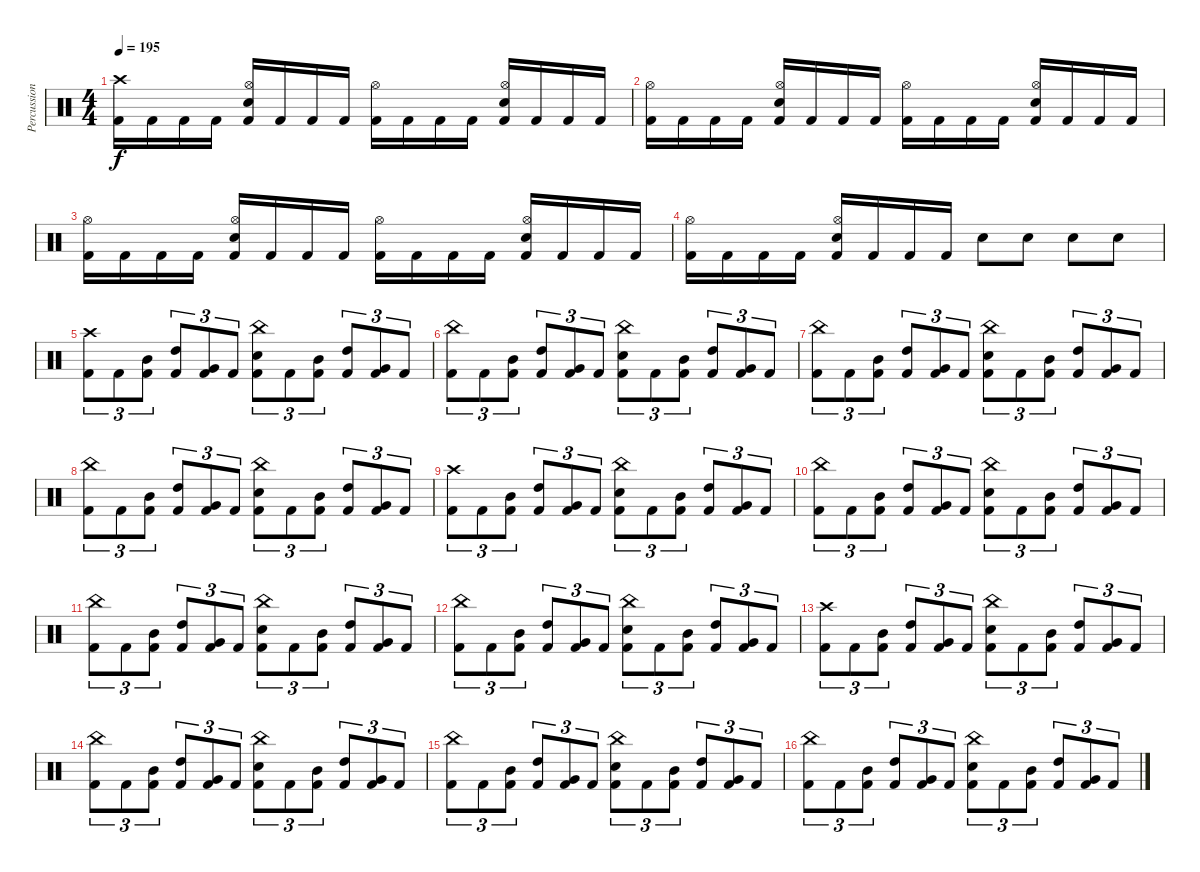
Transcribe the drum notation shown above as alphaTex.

\track ("Percussion" "Percussion") {instrument percussion}
\staff {score}
\articulation defaults
\ts (4 4)
\tempo 195
\clef neutral
\ks c
("Kick (hit) 2" "Crash high (hit)").16{dy f} "Kick (hit) 2".16 "Kick (hit) 2".16 "Kick (hit) 2".16 ("Kick (hit) 2" "Hi-Hat (open)" "Snare (hit) 2").16 "Kick (hit) 2".16 "Kick (hit) 2".16 "Kick (hit) 2".16 ("Kick (hit) 2" "Hi-Hat (open)").16 "Kick (hit) 2".16 "Kick (hit) 2".16 "Kick (hit) 2".16 ("Kick (hit) 2" "Hi-Hat (open)" "Snare (hit) 2").16 "Kick (hit) 2".16 "Kick (hit) 2".16 "Kick (hit) 2".16 |
("Kick (hit) 2" "Hi-Hat (open)").16 "Kick (hit) 2".16 "Kick (hit) 2".16 "Kick (hit) 2".16 ("Kick (hit) 2" "Hi-Hat (open)" "Snare (hit) 2").16 "Kick (hit) 2".16 "Kick (hit) 2".16 "Kick (hit) 2".16 ("Kick (hit) 2" "Hi-Hat (open)").16 "Kick (hit) 2".16 "Kick (hit) 2".16 "Kick (hit) 2".16 ("Kick (hit) 2" "Hi-Hat (open)" "Snare (hit) 2").16 "Kick (hit) 2".16 "Kick (hit) 2".16 "Kick (hit) 2".16 |
("Kick (hit) 2" "Hi-Hat (open)").16 "Kick (hit) 2".16 "Kick (hit) 2".16 "Kick (hit) 2".16 ("Kick (hit) 2" "Hi-Hat (open)" "Snare (hit) 2").16 "Kick (hit) 2".16 "Kick (hit) 2".16 "Kick (hit) 2".16 ("Kick (hit) 2" "Hi-Hat (open)").16 "Kick (hit) 2".16 "Kick (hit) 2".16 "Kick (hit) 2".16 ("Kick (hit) 2" "Hi-Hat (open)" "Snare (hit) 2").16 "Kick (hit) 2".16 "Kick (hit) 2".16 "Kick (hit) 2".16 |
("Kick (hit) 2" "Hi-Hat (open)").16 "Kick (hit) 2".16 "Kick (hit) 2".16 "Kick (hit) 2".16 ("Kick (hit) 2" "Hi-Hat (open)" "Snare (hit) 2").16 "Kick (hit) 2".16 "Kick (hit) 2".16 "Kick (hit) 2".16 "Snare (hit) 2".8 "Snare (hit) 2".8 "Snare (hit) 2".8 "Snare (hit) 2".8 |
("Crash high (hit)" "Kick (hit) 2").8{tu (3 2)} "Kick (hit) 2".8{tu (3 2)} ("Kick (hit) 2" "Mid Tom (hit)").8{tu (3 2)} ("Kick (hit) 2" "High Tom (hit)").8{tu (3 2)} ("Kick (hit) 2" "Very Low Tom (hit)").8{tu (3 2)} "Kick (hit) 2".8{tu (3 2)} ("China (hit)" "Snare (hit) 2" "Kick (hit) 2").8{tu (3 2)} "Kick (hit) 2".8{tu (3 2)} ("Kick (hit) 2" "Mid Tom (hit)").8{tu (3 2)} ("Kick (hit) 2" "High Tom (hit)").8{tu (3 2)} ("Kick (hit) 2" "Very Low Tom (hit)").8{tu (3 2)} "Kick (hit) 2".8{tu (3 2)} |
("China (hit)" "Kick (hit) 2").8{tu (3 2)} "Kick (hit) 2".8{tu (3 2)} ("Kick (hit) 2" "Mid Tom (hit)").8{tu (3 2)} ("Kick (hit) 2" "High Tom (hit)").8{tu (3 2)} ("Kick (hit) 2" "Very Low Tom (hit)").8{tu (3 2)} "Kick (hit) 2".8{tu (3 2)} ("China (hit)" "Snare (hit) 2" "Kick (hit) 2").8{tu (3 2)} "Kick (hit) 2".8{tu (3 2)} ("Kick (hit) 2" "Mid Tom (hit)").8{tu (3 2)} ("Kick (hit) 2" "High Tom (hit)").8{tu (3 2)} ("Kick (hit) 2" "Very Low Tom (hit)").8{tu (3 2)} "Kick (hit) 2".8{tu (3 2)} |
("China (hit)" "Kick (hit) 2").8{tu (3 2)} "Kick (hit) 2".8{tu (3 2)} ("Kick (hit) 2" "Mid Tom (hit)").8{tu (3 2)} ("Kick (hit) 2" "High Tom (hit)").8{tu (3 2)} ("Kick (hit) 2" "Very Low Tom (hit)").8{tu (3 2)} "Kick (hit) 2".8{tu (3 2)} ("China (hit)" "Snare (hit) 2" "Kick (hit) 2").8{tu (3 2)} "Kick (hit) 2".8{tu (3 2)} ("Kick (hit) 2" "Mid Tom (hit)").8{tu (3 2)} ("Kick (hit) 2" "High Tom (hit)").8{tu (3 2)} ("Kick (hit) 2" "Very Low Tom (hit)").8{tu (3 2)} "Kick (hit) 2".8{tu (3 2)} |
("China (hit)" "Kick (hit) 2").8{tu (3 2)} "Kick (hit) 2".8{tu (3 2)} ("Kick (hit) 2" "Mid Tom (hit)").8{tu (3 2)} ("Kick (hit) 2" "High Tom (hit)").8{tu (3 2)} ("Kick (hit) 2" "Very Low Tom (hit)").8{tu (3 2)} "Kick (hit) 2".8{tu (3 2)} ("China (hit)" "Snare (hit) 2" "Kick (hit) 2").8{tu (3 2)} "Kick (hit) 2".8{tu (3 2)} ("Kick (hit) 2" "Mid Tom (hit)").8{tu (3 2)} ("Kick (hit) 2" "High Tom (hit)").8{tu (3 2)} ("Kick (hit) 2" "Very Low Tom (hit)").8{tu (3 2)} "Kick (hit) 2".8{tu (3 2)} |
("Crash high (hit)" "Kick (hit) 2").8{tu (3 2)} "Kick (hit) 2".8{tu (3 2)} ("Kick (hit) 2" "Mid Tom (hit)").8{tu (3 2)} ("Kick (hit) 2" "High Tom (hit)").8{tu (3 2)} ("Kick (hit) 2" "Very Low Tom (hit)").8{tu (3 2)} "Kick (hit) 2".8{tu (3 2)} ("China (hit)" "Snare (hit) 2" "Kick (hit) 2").8{tu (3 2)} "Kick (hit) 2".8{tu (3 2)} ("Kick (hit) 2" "Mid Tom (hit)").8{tu (3 2)} ("Kick (hit) 2" "High Tom (hit)").8{tu (3 2)} ("Kick (hit) 2" "Very Low Tom (hit)").8{tu (3 2)} "Kick (hit) 2".8{tu (3 2)} |
("China (hit)" "Kick (hit) 2").8{tu (3 2)} "Kick (hit) 2".8{tu (3 2)} ("Kick (hit) 2" "Mid Tom (hit)").8{tu (3 2)} ("Kick (hit) 2" "High Tom (hit)").8{tu (3 2)} ("Kick (hit) 2" "Very Low Tom (hit)").8{tu (3 2)} "Kick (hit) 2".8{tu (3 2)} ("China (hit)" "Snare (hit) 2" "Kick (hit) 2").8{tu (3 2)} "Kick (hit) 2".8{tu (3 2)} ("Kick (hit) 2" "Mid Tom (hit)").8{tu (3 2)} ("Kick (hit) 2" "High Tom (hit)").8{tu (3 2)} ("Kick (hit) 2" "Very Low Tom (hit)").8{tu (3 2)} "Kick (hit) 2".8{tu (3 2)} |
("China (hit)" "Kick (hit) 2").8{tu (3 2)} "Kick (hit) 2".8{tu (3 2)} ("Kick (hit) 2" "Mid Tom (hit)").8{tu (3 2)} ("Kick (hit) 2" "High Tom (hit)").8{tu (3 2)} ("Kick (hit) 2" "Very Low Tom (hit)").8{tu (3 2)} "Kick (hit) 2".8{tu (3 2)} ("China (hit)" "Snare (hit) 2" "Kick (hit) 2").8{tu (3 2)} "Kick (hit) 2".8{tu (3 2)} ("Kick (hit) 2" "Mid Tom (hit)").8{tu (3 2)} ("Kick (hit) 2" "High Tom (hit)").8{tu (3 2)} ("Kick (hit) 2" "Very Low Tom (hit)").8{tu (3 2)} "Kick (hit) 2".8{tu (3 2)} |
("China (hit)" "Kick (hit) 2").8{tu (3 2)} "Kick (hit) 2".8{tu (3 2)} ("Kick (hit) 2" "Mid Tom (hit)").8{tu (3 2)} ("Kick (hit) 2" "High Tom (hit)").8{tu (3 2)} ("Kick (hit) 2" "Very Low Tom (hit)").8{tu (3 2)} "Kick (hit) 2".8{tu (3 2)} ("China (hit)" "Snare (hit) 2" "Kick (hit) 2").8{tu (3 2)} "Kick (hit) 2".8{tu (3 2)} ("Kick (hit) 2" "Mid Tom (hit)").8{tu (3 2)} ("Kick (hit) 2" "High Tom (hit)").8{tu (3 2)} ("Kick (hit) 2" "Very Low Tom (hit)").8{tu (3 2)} "Kick (hit) 2".8{tu (3 2)} |
("Crash high (hit)" "Kick (hit) 2").8{tu (3 2)} "Kick (hit) 2".8{tu (3 2)} ("Kick (hit) 2" "Mid Tom (hit)").8{tu (3 2)} ("Kick (hit) 2" "High Tom (hit)").8{tu (3 2)} ("Kick (hit) 2" "Very Low Tom (hit)").8{tu (3 2)} "Kick (hit) 2".8{tu (3 2)} ("China (hit)" "Snare (hit) 2" "Kick (hit) 2").8{tu (3 2)} "Kick (hit) 2".8{tu (3 2)} ("Kick (hit) 2" "Mid Tom (hit)").8{tu (3 2)} ("Kick (hit) 2" "High Tom (hit)").8{tu (3 2)} ("Kick (hit) 2" "Very Low Tom (hit)").8{tu (3 2)} "Kick (hit) 2".8{tu (3 2)} |
("China (hit)" "Kick (hit) 2").8{tu (3 2)} "Kick (hit) 2".8{tu (3 2)} ("Kick (hit) 2" "Mid Tom (hit)").8{tu (3 2)} ("Kick (hit) 2" "High Tom (hit)").8{tu (3 2)} ("Kick (hit) 2" "Very Low Tom (hit)").8{tu (3 2)} "Kick (hit) 2".8{tu (3 2)} ("China (hit)" "Snare (hit) 2" "Kick (hit) 2").8{tu (3 2)} "Kick (hit) 2".8{tu (3 2)} ("Kick (hit) 2" "Mid Tom (hit)").8{tu (3 2)} ("Kick (hit) 2" "High Tom (hit)").8{tu (3 2)} ("Kick (hit) 2" "Very Low Tom (hit)").8{tu (3 2)} "Kick (hit) 2".8{tu (3 2)} |
("China (hit)" "Kick (hit) 2").8{tu (3 2)} "Kick (hit) 2".8{tu (3 2)} ("Kick (hit) 2" "Mid Tom (hit)").8{tu (3 2)} ("Kick (hit) 2" "High Tom (hit)").8{tu (3 2)} ("Kick (hit) 2" "Very Low Tom (hit)").8{tu (3 2)} "Kick (hit) 2".8{tu (3 2)} ("China (hit)" "Snare (hit) 2" "Kick (hit) 2").8{tu (3 2)} "Kick (hit) 2".8{tu (3 2)} ("Kick (hit) 2" "Mid Tom (hit)").8{tu (3 2)} ("Kick (hit) 2" "High Tom (hit)").8{tu (3 2)} ("Kick (hit) 2" "Very Low Tom (hit)").8{tu (3 2)} "Kick (hit) 2".8{tu (3 2)} |
("China (hit)" "Kick (hit) 2").8{tu (3 2)} "Kick (hit) 2".8{tu (3 2)} ("Kick (hit) 2" "Mid Tom (hit)").8{tu (3 2)} ("Kick (hit) 2" "High Tom (hit)").8{tu (3 2)} ("Kick (hit) 2" "Very Low Tom (hit)").8{tu (3 2)} "Kick (hit) 2".8{tu (3 2)} ("China (hit)" "Snare (hit) 2" "Kick (hit) 2").8{tu (3 2)} "Kick (hit) 2".8{tu (3 2)} ("Kick (hit) 2" "Mid Tom (hit)").8{tu (3 2)} ("Kick (hit) 2" "High Tom (hit)").8{tu (3 2)} ("Kick (hit) 2" "Very Low Tom (hit)").8{tu (3 2)} "Kick (hit) 2".8{tu (3 2)}
